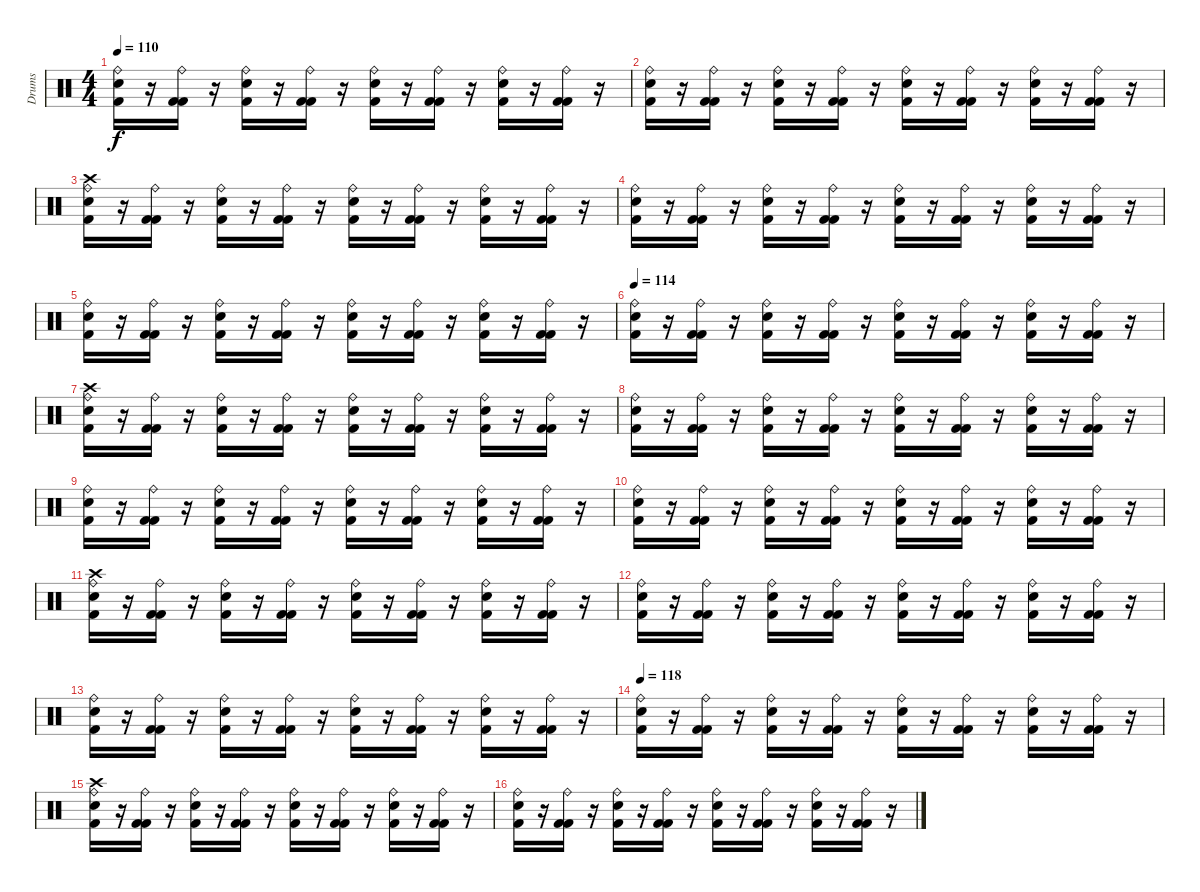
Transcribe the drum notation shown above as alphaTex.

\track ("Drums" "Drums") {instrument percussion}
\staff {score}
\articulation defaults
\ts (4 4)
\tempo 110
\clef neutral
\ks c
("Ride (bell)" "Snare (hit) 2" "Kick (hit) 2").16{dy f} r.16 ("Ride (bell)" "Kick (hit) 2" "Kick (hit) 2").16 r.16 ("Ride (bell)" "Snare (hit) 2" "Kick (hit) 2").16 r.16 ("Ride (bell)" "Kick (hit) 2" "Kick (hit) 2").16 r.16 ("Ride (bell)" "Snare (hit) 2" "Kick (hit) 2").16 r.16 ("Ride (bell)" "Kick (hit) 2" "Kick (hit) 2").16 r.16 ("Ride (bell)" "Snare (hit) 2" "Kick (hit) 2").16 r.16 ("Ride (bell)" "Kick (hit) 2" "Kick (hit) 2").16 r.16 |
("Ride (bell)" "Snare (hit) 2" "Kick (hit) 2").16 r.16 ("Ride (bell)" "Kick (hit) 2" "Kick (hit) 2").16 r.16 ("Ride (bell)" "Snare (hit) 2" "Kick (hit) 2").16 r.16 ("Ride (bell)" "Kick (hit) 2" "Kick (hit) 2").16 r.16 ("Ride (bell)" "Snare (hit) 2" "Kick (hit) 2").16 r.16 ("Ride (bell)" "Kick (hit) 2" "Kick (hit) 2").16 r.16 ("Ride (bell)" "Snare (hit) 2" "Kick (hit) 2").16 r.16 ("Ride (bell)" "Kick (hit) 2" "Kick (hit) 2").16 r.16 |
("Crash high (hit)" "Ride (bell)" "Snare (hit) 2" "Kick (hit) 2").16 r.16 ("Ride (bell)" "Kick (hit) 2" "Kick (hit) 2").16 r.16 ("Ride (bell)" "Snare (hit) 2" "Kick (hit) 2").16 r.16 ("Ride (bell)" "Kick (hit) 2" "Kick (hit) 2").16 r.16 ("Ride (bell)" "Snare (hit) 2" "Kick (hit) 2").16 r.16 ("Ride (bell)" "Kick (hit) 2" "Kick (hit) 2").16 r.16 ("Ride (bell)" "Snare (hit) 2" "Kick (hit) 2").16 r.16 ("Ride (bell)" "Kick (hit) 2" "Kick (hit) 2").16 r.16 |
("Ride (bell)" "Snare (hit) 2" "Kick (hit) 2").16 r.16 ("Ride (bell)" "Kick (hit) 2" "Kick (hit) 2").16 r.16 ("Ride (bell)" "Snare (hit) 2" "Kick (hit) 2").16 r.16 ("Ride (bell)" "Kick (hit) 2" "Kick (hit) 2").16 r.16 ("Ride (bell)" "Snare (hit) 2" "Kick (hit) 2").16 r.16 ("Ride (bell)" "Kick (hit) 2" "Kick (hit) 2").16 r.16 ("Ride (bell)" "Snare (hit) 2" "Kick (hit) 2").16 r.16 ("Ride (bell)" "Kick (hit) 2" "Kick (hit) 2").16 r.16 |
("Ride (bell)" "Snare (hit) 2" "Kick (hit) 2").16 r.16 ("Ride (bell)" "Kick (hit) 2" "Kick (hit) 2").16 r.16 ("Ride (bell)" "Snare (hit) 2" "Kick (hit) 2").16 r.16 ("Ride (bell)" "Kick (hit) 2" "Kick (hit) 2").16 r.16 ("Ride (bell)" "Snare (hit) 2" "Kick (hit) 2").16 r.16 ("Ride (bell)" "Kick (hit) 2" "Kick (hit) 2").16 r.16 ("Ride (bell)" "Snare (hit) 2" "Kick (hit) 2").16 r.16 ("Ride (bell)" "Kick (hit) 2" "Kick (hit) 2").16 r.16 |
\tempo 114
("Ride (bell)" "Snare (hit) 2" "Kick (hit) 2").16 r.16 ("Ride (bell)" "Kick (hit) 2" "Kick (hit) 2").16 r.16 ("Ride (bell)" "Snare (hit) 2" "Kick (hit) 2").16 r.16 ("Ride (bell)" "Kick (hit) 2" "Kick (hit) 2").16 r.16 ("Ride (bell)" "Snare (hit) 2" "Kick (hit) 2").16 r.16 ("Ride (bell)" "Kick (hit) 2" "Kick (hit) 2").16 r.16 ("Ride (bell)" "Snare (hit) 2" "Kick (hit) 2").16 r.16 ("Ride (bell)" "Kick (hit) 2" "Kick (hit) 2").16 r.16 |
("Crash high (hit)" "Ride (bell)" "Snare (hit) 2" "Kick (hit) 2").16 r.16 ("Ride (bell)" "Kick (hit) 2" "Kick (hit) 2").16 r.16 ("Ride (bell)" "Snare (hit) 2" "Kick (hit) 2").16 r.16 ("Ride (bell)" "Kick (hit) 2" "Kick (hit) 2").16 r.16 ("Ride (bell)" "Snare (hit) 2" "Kick (hit) 2").16 r.16 ("Ride (bell)" "Kick (hit) 2" "Kick (hit) 2").16 r.16 ("Ride (bell)" "Snare (hit) 2" "Kick (hit) 2").16 r.16 ("Ride (bell)" "Kick (hit) 2" "Kick (hit) 2").16 r.16 |
("Ride (bell)" "Snare (hit) 2" "Kick (hit) 2").16 r.16 ("Ride (bell)" "Kick (hit) 2" "Kick (hit) 2").16 r.16 ("Ride (bell)" "Snare (hit) 2" "Kick (hit) 2").16 r.16 ("Ride (bell)" "Kick (hit) 2" "Kick (hit) 2").16 r.16 ("Ride (bell)" "Snare (hit) 2" "Kick (hit) 2").16 r.16 ("Ride (bell)" "Kick (hit) 2" "Kick (hit) 2").16 r.16 ("Ride (bell)" "Snare (hit) 2" "Kick (hit) 2").16 r.16 ("Ride (bell)" "Kick (hit) 2" "Kick (hit) 2").16 r.16 |
("Ride (bell)" "Snare (hit) 2" "Kick (hit) 2").16 r.16 ("Ride (bell)" "Kick (hit) 2" "Kick (hit) 2").16 r.16 ("Ride (bell)" "Snare (hit) 2" "Kick (hit) 2").16 r.16 ("Ride (bell)" "Kick (hit) 2" "Kick (hit) 2").16 r.16 ("Ride (bell)" "Snare (hit) 2" "Kick (hit) 2").16 r.16 ("Ride (bell)" "Kick (hit) 2" "Kick (hit) 2").16 r.16 ("Ride (bell)" "Snare (hit) 2" "Kick (hit) 2").16 r.16 ("Ride (bell)" "Kick (hit) 2" "Kick (hit) 2").16 r.16 |
("Ride (bell)" "Snare (hit) 2" "Kick (hit) 2").16 r.16 ("Ride (bell)" "Kick (hit) 2" "Kick (hit) 2").16 r.16 ("Ride (bell)" "Snare (hit) 2" "Kick (hit) 2").16 r.16 ("Ride (bell)" "Kick (hit) 2" "Kick (hit) 2").16 r.16 ("Ride (bell)" "Snare (hit) 2" "Kick (hit) 2").16 r.16 ("Ride (bell)" "Kick (hit) 2" "Kick (hit) 2").16 r.16 ("Ride (bell)" "Snare (hit) 2" "Kick (hit) 2").16 r.16 ("Ride (bell)" "Kick (hit) 2" "Kick (hit) 2").16 r.16 |
("Crash high (hit)" "Ride (bell)" "Snare (hit) 2" "Kick (hit) 2").16 r.16 ("Ride (bell)" "Kick (hit) 2" "Kick (hit) 2").16 r.16 ("Ride (bell)" "Snare (hit) 2" "Kick (hit) 2").16 r.16 ("Ride (bell)" "Kick (hit) 2" "Kick (hit) 2").16 r.16 ("Ride (bell)" "Snare (hit) 2" "Kick (hit) 2").16 r.16 ("Ride (bell)" "Kick (hit) 2" "Kick (hit) 2").16 r.16 ("Ride (bell)" "Snare (hit) 2" "Kick (hit) 2").16 r.16 ("Ride (bell)" "Kick (hit) 2" "Kick (hit) 2").16 r.16 |
("Ride (bell)" "Snare (hit) 2" "Kick (hit) 2").16 r.16 ("Ride (bell)" "Kick (hit) 2" "Kick (hit) 2").16 r.16 ("Ride (bell)" "Snare (hit) 2" "Kick (hit) 2").16 r.16 ("Ride (bell)" "Kick (hit) 2" "Kick (hit) 2").16 r.16 ("Ride (bell)" "Snare (hit) 2" "Kick (hit) 2").16 r.16 ("Ride (bell)" "Kick (hit) 2" "Kick (hit) 2").16 r.16 ("Ride (bell)" "Snare (hit) 2" "Kick (hit) 2").16 r.16 ("Ride (bell)" "Kick (hit) 2" "Kick (hit) 2").16 r.16 |
("Ride (bell)" "Snare (hit) 2" "Kick (hit) 2").16 r.16 ("Ride (bell)" "Kick (hit) 2" "Kick (hit) 2").16 r.16 ("Ride (bell)" "Snare (hit) 2" "Kick (hit) 2").16 r.16 ("Ride (bell)" "Kick (hit) 2" "Kick (hit) 2").16 r.16 ("Ride (bell)" "Snare (hit) 2" "Kick (hit) 2").16 r.16 ("Ride (bell)" "Kick (hit) 2" "Kick (hit) 2").16 r.16 ("Ride (bell)" "Snare (hit) 2" "Kick (hit) 2").16 r.16 ("Ride (bell)" "Kick (hit) 2" "Kick (hit) 2").16 r.16 |
\tempo 118
("Ride (bell)" "Snare (hit) 2" "Kick (hit) 2").16 r.16 ("Ride (bell)" "Kick (hit) 2" "Kick (hit) 2").16 r.16 ("Ride (bell)" "Snare (hit) 2" "Kick (hit) 2").16 r.16 ("Ride (bell)" "Kick (hit) 2" "Kick (hit) 2").16 r.16 ("Ride (bell)" "Snare (hit) 2" "Kick (hit) 2").16 r.16 ("Ride (bell)" "Kick (hit) 2" "Kick (hit) 2").16 r.16 ("Ride (bell)" "Snare (hit) 2" "Kick (hit) 2").16 r.16 ("Ride (bell)" "Kick (hit) 2" "Kick (hit) 2").16 r.16 |
("Crash high (hit)" "Ride (bell)" "Snare (hit) 2" "Kick (hit) 2").16 r.16 ("Ride (bell)" "Kick (hit) 2" "Kick (hit) 2").16 r.16 ("Ride (bell)" "Snare (hit) 2" "Kick (hit) 2").16 r.16 ("Ride (bell)" "Kick (hit) 2" "Kick (hit) 2").16 r.16 ("Ride (bell)" "Snare (hit) 2" "Kick (hit) 2").16 r.16 ("Ride (bell)" "Kick (hit) 2" "Kick (hit) 2").16 r.16 ("Ride (bell)" "Snare (hit) 2" "Kick (hit) 2").16 r.16 ("Ride (bell)" "Kick (hit) 2" "Kick (hit) 2").16 r.16 |
("Ride (bell)" "Snare (hit) 2" "Kick (hit) 2").16 r.16 ("Ride (bell)" "Kick (hit) 2" "Kick (hit) 2").16 r.16 ("Ride (bell)" "Snare (hit) 2" "Kick (hit) 2").16 r.16 ("Ride (bell)" "Kick (hit) 2" "Kick (hit) 2").16 r.16 ("Ride (bell)" "Snare (hit) 2" "Kick (hit) 2").16 r.16 ("Ride (bell)" "Kick (hit) 2" "Kick (hit) 2").16 r.16 ("Ride (bell)" "Snare (hit) 2" "Kick (hit) 2").16 r.16 ("Ride (bell)" "Kick (hit) 2" "Kick (hit) 2").16 r.16
